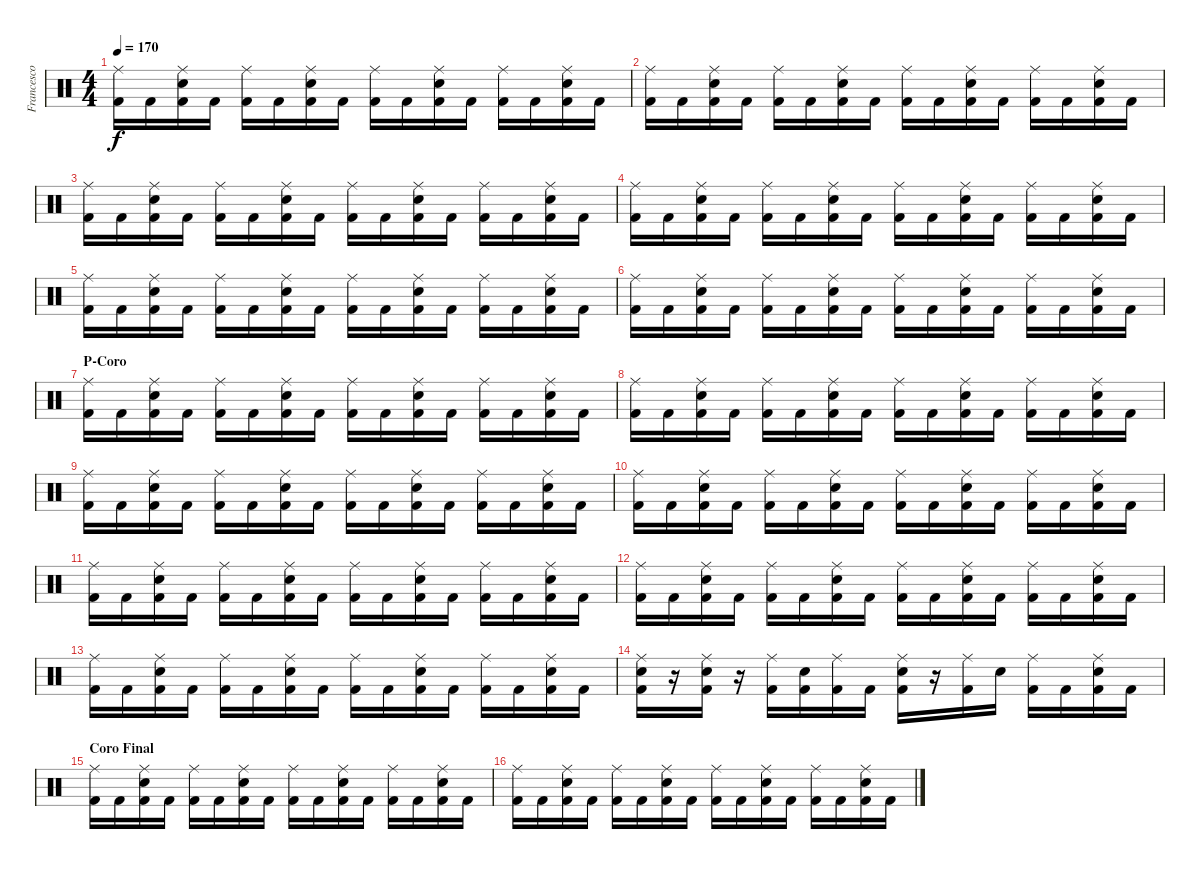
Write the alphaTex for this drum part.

\track ("Francesco Tresa" "Francesco ") {instrument percussion}
\staff {score}
\articulation defaults
\ts (4 4)
\tempo 170
\clef neutral
\ks c
("Ride (middle)" "Kick (hit) 2").16{dy f} "Kick (hit) 2".16 ("Ride (middle)" "Kick (hit) 2" "Electric Snare (hit)").16 "Kick (hit) 2".16 ("Ride (middle)" "Kick (hit) 2").16 "Kick (hit) 2".16 ("Ride (middle)" "Kick (hit) 2" "Electric Snare (hit)").16 "Kick (hit) 2".16 ("Ride (middle)" "Kick (hit) 2").16 "Kick (hit) 2".16 ("Ride (middle)" "Kick (hit) 2" "Electric Snare (hit)").16 "Kick (hit) 2".16 ("Ride (middle)" "Kick (hit) 2").16 "Kick (hit) 2".16 ("Ride (middle)" "Kick (hit) 2" "Electric Snare (hit)").16 "Kick (hit) 2".16 |
("Ride (middle)" "Kick (hit) 2").16 "Kick (hit) 2".16 ("Ride (middle)" "Kick (hit) 2" "Electric Snare (hit)").16 "Kick (hit) 2".16 ("Ride (middle)" "Kick (hit) 2").16 "Kick (hit) 2".16 ("Ride (middle)" "Kick (hit) 2" "Electric Snare (hit)").16 "Kick (hit) 2".16 ("Ride (middle)" "Kick (hit) 2").16 "Kick (hit) 2".16 ("Ride (middle)" "Kick (hit) 2" "Electric Snare (hit)").16 "Kick (hit) 2".16 ("Ride (middle)" "Kick (hit) 2").16 "Kick (hit) 2".16 ("Ride (middle)" "Kick (hit) 2" "Electric Snare (hit)").16 "Kick (hit) 2".16 |
("Ride (middle)" "Kick (hit) 2").16 "Kick (hit) 2".16 ("Ride (middle)" "Kick (hit) 2" "Electric Snare (hit)").16 "Kick (hit) 2".16 ("Ride (middle)" "Kick (hit) 2").16 "Kick (hit) 2".16 ("Ride (middle)" "Kick (hit) 2" "Electric Snare (hit)").16 "Kick (hit) 2".16 ("Ride (middle)" "Kick (hit) 2").16 "Kick (hit) 2".16 ("Ride (middle)" "Kick (hit) 2" "Electric Snare (hit)").16 "Kick (hit) 2".16 ("Ride (middle)" "Kick (hit) 2").16 "Kick (hit) 2".16 ("Ride (middle)" "Kick (hit) 2" "Electric Snare (hit)").16 "Kick (hit) 2".16 |
("Ride (middle)" "Kick (hit) 2").16 "Kick (hit) 2".16 ("Ride (middle)" "Kick (hit) 2" "Electric Snare (hit)").16 "Kick (hit) 2".16 ("Ride (middle)" "Kick (hit) 2").16 "Kick (hit) 2".16 ("Ride (middle)" "Kick (hit) 2" "Electric Snare (hit)").16 "Kick (hit) 2".16 ("Ride (middle)" "Kick (hit) 2").16 "Kick (hit) 2".16 ("Ride (middle)" "Kick (hit) 2" "Electric Snare (hit)").16 "Kick (hit) 2".16 ("Ride (middle)" "Kick (hit) 2").16 "Kick (hit) 2".16 ("Ride (middle)" "Kick (hit) 2" "Electric Snare (hit)").16 "Kick (hit) 2".16 |
("Ride (middle)" "Kick (hit) 2").16 "Kick (hit) 2".16 ("Ride (middle)" "Kick (hit) 2" "Electric Snare (hit)").16 "Kick (hit) 2".16 ("Ride (middle)" "Kick (hit) 2").16 "Kick (hit) 2".16 ("Ride (middle)" "Kick (hit) 2" "Electric Snare (hit)").16 "Kick (hit) 2".16 ("Ride (middle)" "Kick (hit) 2").16 "Kick (hit) 2".16 ("Ride (middle)" "Kick (hit) 2" "Electric Snare (hit)").16 "Kick (hit) 2".16 ("Ride (middle)" "Kick (hit) 2").16 "Kick (hit) 2".16 ("Ride (middle)" "Kick (hit) 2" "Electric Snare (hit)").16 "Kick (hit) 2".16 |
("Ride (middle)" "Kick (hit) 2").16 "Kick (hit) 2".16 ("Ride (middle)" "Kick (hit) 2" "Electric Snare (hit)").16 "Kick (hit) 2".16 ("Ride (middle)" "Kick (hit) 2").16 "Kick (hit) 2".16 ("Ride (middle)" "Kick (hit) 2" "Electric Snare (hit)").16 "Kick (hit) 2".16 ("Ride (middle)" "Kick (hit) 2").16 "Kick (hit) 2".16 ("Ride (middle)" "Kick (hit) 2" "Electric Snare (hit)").16 "Kick (hit) 2".16 ("Ride (middle)" "Kick (hit) 2").16 "Kick (hit) 2".16 ("Ride (middle)" "Kick (hit) 2" "Electric Snare (hit)").16 "Kick (hit) 2".16 |
\section ("" "P-Coro")
("Ride (middle)" "Kick (hit) 2").16 "Kick (hit) 2".16 ("Ride (middle)" "Kick (hit) 2" "Electric Snare (hit)").16 "Kick (hit) 2".16 ("Ride (middle)" "Kick (hit) 2").16 "Kick (hit) 2".16 ("Ride (middle)" "Kick (hit) 2" "Electric Snare (hit)").16 "Kick (hit) 2".16 ("Ride (middle)" "Kick (hit) 2").16 "Kick (hit) 2".16 ("Ride (middle)" "Kick (hit) 2" "Electric Snare (hit)").16 "Kick (hit) 2".16 ("Ride (middle)" "Kick (hit) 2").16 "Kick (hit) 2".16 ("Ride (middle)" "Kick (hit) 2" "Electric Snare (hit)").16 "Kick (hit) 2".16 |
("Ride (middle)" "Kick (hit) 2").16 "Kick (hit) 2".16 ("Ride (middle)" "Kick (hit) 2" "Electric Snare (hit)").16 "Kick (hit) 2".16 ("Ride (middle)" "Kick (hit) 2").16 "Kick (hit) 2".16 ("Ride (middle)" "Kick (hit) 2" "Electric Snare (hit)").16 "Kick (hit) 2".16 ("Ride (middle)" "Kick (hit) 2").16 "Kick (hit) 2".16 ("Ride (middle)" "Kick (hit) 2" "Electric Snare (hit)").16 "Kick (hit) 2".16 ("Ride (middle)" "Kick (hit) 2").16 "Kick (hit) 2".16 ("Ride (middle)" "Kick (hit) 2" "Electric Snare (hit)").16 "Kick (hit) 2".16 |
("Ride (middle)" "Kick (hit) 2").16 "Kick (hit) 2".16 ("Ride (middle)" "Kick (hit) 2" "Electric Snare (hit)").16 "Kick (hit) 2".16 ("Ride (middle)" "Kick (hit) 2").16 "Kick (hit) 2".16 ("Ride (middle)" "Kick (hit) 2" "Electric Snare (hit)").16 "Kick (hit) 2".16 ("Ride (middle)" "Kick (hit) 2").16 "Kick (hit) 2".16 ("Ride (middle)" "Kick (hit) 2" "Electric Snare (hit)").16 "Kick (hit) 2".16 ("Ride (middle)" "Kick (hit) 2").16 "Kick (hit) 2".16 ("Ride (middle)" "Kick (hit) 2" "Electric Snare (hit)").16 "Kick (hit) 2".16 |
("Ride (middle)" "Kick (hit) 2").16 "Kick (hit) 2".16 ("Ride (middle)" "Kick (hit) 2" "Electric Snare (hit)").16 "Kick (hit) 2".16 ("Ride (middle)" "Kick (hit) 2").16 "Kick (hit) 2".16 ("Ride (middle)" "Kick (hit) 2" "Electric Snare (hit)").16 "Kick (hit) 2".16 ("Ride (middle)" "Kick (hit) 2").16 "Kick (hit) 2".16 ("Ride (middle)" "Kick (hit) 2" "Electric Snare (hit)").16 "Kick (hit) 2".16 ("Ride (middle)" "Kick (hit) 2").16 "Kick (hit) 2".16 ("Ride (middle)" "Kick (hit) 2" "Electric Snare (hit)").16 "Kick (hit) 2".16 |
("Ride (middle)" "Kick (hit) 2").16 "Kick (hit) 2".16 ("Ride (middle)" "Kick (hit) 2" "Electric Snare (hit)").16 "Kick (hit) 2".16 ("Ride (middle)" "Kick (hit) 2").16 "Kick (hit) 2".16 ("Ride (middle)" "Kick (hit) 2" "Electric Snare (hit)").16 "Kick (hit) 2".16 ("Ride (middle)" "Kick (hit) 2").16 "Kick (hit) 2".16 ("Ride (middle)" "Kick (hit) 2" "Electric Snare (hit)").16 "Kick (hit) 2".16 ("Ride (middle)" "Kick (hit) 2").16 "Kick (hit) 2".16 ("Ride (middle)" "Kick (hit) 2" "Electric Snare (hit)").16 "Kick (hit) 2".16 |
("Ride (middle)" "Kick (hit) 2").16 "Kick (hit) 2".16 ("Ride (middle)" "Kick (hit) 2" "Electric Snare (hit)").16 "Kick (hit) 2".16 ("Ride (middle)" "Kick (hit) 2").16 "Kick (hit) 2".16 ("Ride (middle)" "Kick (hit) 2" "Electric Snare (hit)").16 "Kick (hit) 2".16 ("Ride (middle)" "Kick (hit) 2").16 "Kick (hit) 2".16 ("Ride (middle)" "Kick (hit) 2" "Electric Snare (hit)").16 "Kick (hit) 2".16 ("Ride (middle)" "Kick (hit) 2").16 "Kick (hit) 2".16 ("Ride (middle)" "Kick (hit) 2" "Electric Snare (hit)").16 "Kick (hit) 2".16 |
("Ride (middle)" "Kick (hit) 2").16 "Kick (hit) 2".16 ("Ride (middle)" "Kick (hit) 2" "Electric Snare (hit)").16 "Kick (hit) 2".16 ("Ride (middle)" "Kick (hit) 2").16 "Kick (hit) 2".16 ("Ride (middle)" "Kick (hit) 2" "Electric Snare (hit)").16 "Kick (hit) 2".16 ("Ride (middle)" "Kick (hit) 2").16 "Kick (hit) 2".16 ("Ride (middle)" "Kick (hit) 2" "Electric Snare (hit)").16 "Kick (hit) 2".16 ("Ride (middle)" "Kick (hit) 2").16 "Kick (hit) 2".16 ("Ride (middle)" "Kick (hit) 2" "Electric Snare (hit)").16 "Kick (hit) 2".16 |
("Ride (middle)" "Kick (hit) 2" "Electric Snare (hit)").16 r.16 ("Ride (middle)" "Kick (hit) 2" "Electric Snare (hit)").16 r.16 ("Ride (middle)" "Kick (hit) 2").16 ("Kick (hit) 2" "Electric Snare (hit)").16 ("Ride (middle)" "Kick (hit) 2").16 "Kick (hit) 2".16 ("Ride (middle)" "Kick (hit) 2" "Electric Snare (hit)").16 r.16 ("Ride (middle)" "Kick (hit) 2").16 "Electric Snare (hit)".16 ("Ride (middle)" "Kick (hit) 2").16 "Kick (hit) 2".16 ("Ride (middle)" "Kick (hit) 2" "Electric Snare (hit)").16 "Kick (hit) 2".16 |
\section ("" "Coro Final")
("Ride (middle)" "Kick (hit) 2").16 "Kick (hit) 2".16 ("Ride (middle)" "Kick (hit) 2" "Electric Snare (hit)").16 "Kick (hit) 2".16 ("Ride (middle)" "Kick (hit) 2").16 "Kick (hit) 2".16 ("Ride (middle)" "Kick (hit) 2" "Electric Snare (hit)").16 "Kick (hit) 2".16 ("Ride (middle)" "Kick (hit) 2").16 "Kick (hit) 2".16 ("Ride (middle)" "Kick (hit) 2" "Electric Snare (hit)").16 "Kick (hit) 2".16 ("Ride (middle)" "Kick (hit) 2").16 "Kick (hit) 2".16 ("Ride (middle)" "Kick (hit) 2" "Electric Snare (hit)").16 "Kick (hit) 2".16 |
("Ride (middle)" "Kick (hit) 2").16 "Kick (hit) 2".16 ("Ride (middle)" "Kick (hit) 2" "Electric Snare (hit)").16 "Kick (hit) 2".16 ("Ride (middle)" "Kick (hit) 2").16 "Kick (hit) 2".16 ("Ride (middle)" "Kick (hit) 2" "Electric Snare (hit)").16 "Kick (hit) 2".16 ("Ride (middle)" "Kick (hit) 2").16 "Kick (hit) 2".16 ("Ride (middle)" "Kick (hit) 2" "Electric Snare (hit)").16 "Kick (hit) 2".16 ("Ride (middle)" "Kick (hit) 2").16 "Kick (hit) 2".16 ("Ride (middle)" "Kick (hit) 2" "Electric Snare (hit)").16 "Kick (hit) 2".16
